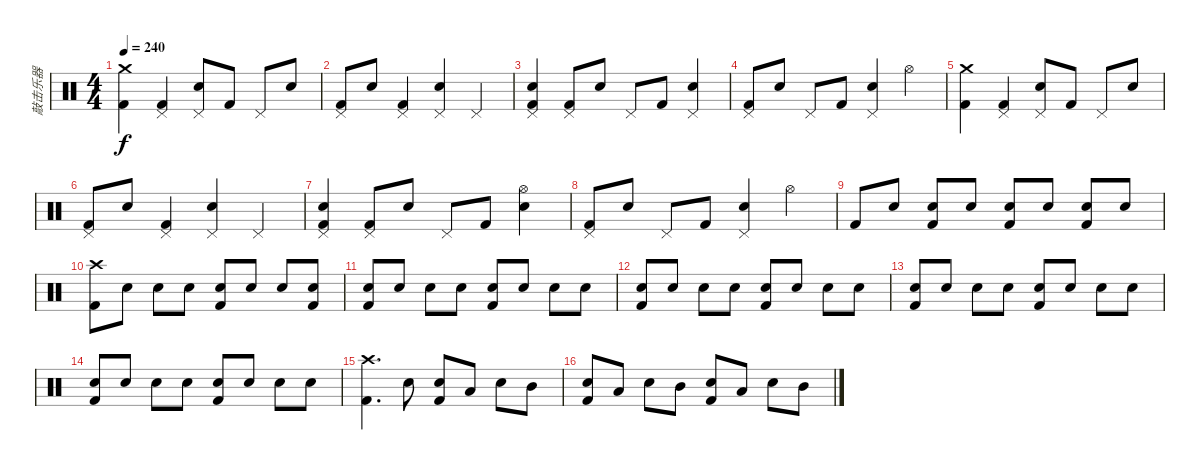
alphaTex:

\track ("敲击乐器" "敲击乐器") {instrument percussion}
\staff {score}
\articulation defaults
\ts (4 4)
\tempo 240
\clef neutral
\ks c
("Crash medium (hit)" "Kick (hit) 2").4{dy f} ("Pedal Hi-Hat (hit)" "Kick (hit) 2").4 ("Pedal Hi-Hat (hit)" "Electric Snare (hit)").8 "Kick (hit) 2".8 "Pedal Hi-Hat (hit)".8 "Electric Snare (hit)".8 |
("Pedal Hi-Hat (hit)" "Kick (hit) 2").8 "Electric Snare (hit)".8 ("Pedal Hi-Hat (hit)" "Kick (hit) 2").4 ("Pedal Hi-Hat (hit)" "Electric Snare (hit)").4 "Pedal Hi-Hat (hit)".4 |
("Pedal Hi-Hat (hit)" "Electric Snare (hit)" "Kick (hit) 2").4 ("Pedal Hi-Hat (hit)" "Kick (hit) 2").8 "Electric Snare (hit)".8 "Pedal Hi-Hat (hit)".8 "Kick (hit) 2".8 ("Pedal Hi-Hat (hit)" "Electric Snare (hit)").4 |
("Pedal Hi-Hat (hit)" "Kick (hit) 2").8 "Electric Snare (hit)".8 "Pedal Hi-Hat (hit)".8 "Kick (hit) 2".8 ("Pedal Hi-Hat (hit)" "Electric Snare (hit)").4 "Hi-Hat (open)".4 |
("Crash medium (hit)" "Kick (hit) 2").4 ("Pedal Hi-Hat (hit)" "Kick (hit) 2").4 ("Pedal Hi-Hat (hit)" "Electric Snare (hit)").8 "Kick (hit) 2".8 "Pedal Hi-Hat (hit)".8 "Electric Snare (hit)".8 |
("Pedal Hi-Hat (hit)" "Kick (hit) 2").8 "Electric Snare (hit)".8 ("Pedal Hi-Hat (hit)" "Kick (hit) 2").4 ("Pedal Hi-Hat (hit)" "Electric Snare (hit)").4 "Pedal Hi-Hat (hit)".4 |
("Pedal Hi-Hat (hit)" "Electric Snare (hit)" "Kick (hit) 2").4 ("Pedal Hi-Hat (hit)" "Kick (hit) 2").8 "Electric Snare (hit)".8 "Pedal Hi-Hat (hit)".8 "Kick (hit) 2".8 ("Hi-Hat (open)" "Electric Snare (hit)").4 |
("Pedal Hi-Hat (hit)" "Kick (hit) 2").8 "Electric Snare (hit)".8 "Pedal Hi-Hat (hit)".8 "Kick (hit) 2".8 ("Pedal Hi-Hat (hit)" "Electric Snare (hit)").4 "Hi-Hat (open)".4 |
"Kick (hit) 2".8 "Electric Snare (hit)".8 ("Electric Snare (hit)" "Kick (hit) 2").8 "Electric Snare (hit)".8 ("Electric Snare (hit)" "Kick (hit) 2").8 "Electric Snare (hit)".8 ("Electric Snare (hit)" "Kick (hit) 2").8 "Electric Snare (hit)".8 |
("Crash high (hit)" "Kick (hit) 2").8 "Electric Snare (hit)".8 "Electric Snare (hit)".8 "Electric Snare (hit)".8 ("Electric Snare (hit)" "Kick (hit) 2").8 "Electric Snare (hit)".8 "Electric Snare (hit)".8 ("Electric Snare (hit)" "Kick (hit) 2").8 |
("Electric Snare (hit)" "Kick (hit) 2").8 "Electric Snare (hit)".8 "Electric Snare (hit)".8 "Electric Snare (hit)".8 ("Electric Snare (hit)" "Kick (hit) 2").8 "Electric Snare (hit)".8 "Electric Snare (hit)".8 "Electric Snare (hit)".8 |
("Electric Snare (hit)" "Kick (hit) 2").8 "Electric Snare (hit)".8 "Electric Snare (hit)".8 "Electric Snare (hit)".8 ("Electric Snare (hit)" "Kick (hit) 2").8 "Electric Snare (hit)".8 "Electric Snare (hit)".8 "Electric Snare (hit)".8 |
("Electric Snare (hit)" "Kick (hit) 2").8 "Electric Snare (hit)".8 "Electric Snare (hit)".8 "Electric Snare (hit)".8 ("Electric Snare (hit)" "Kick (hit) 2").8 "Electric Snare (hit)".8 "Electric Snare (hit)".8 "Electric Snare (hit)".8 |
("Electric Snare (hit)" "Kick (hit) 2").8 "Electric Snare (hit)".8 "Electric Snare (hit)".8 "Electric Snare (hit)".8 ("Electric Snare (hit)" "Kick (hit) 2").8 "Electric Snare (hit)".8 "Electric Snare (hit)".8 "Electric Snare (hit)".8 |
("Crash high (hit)" "Kick (hit) 2").4{d} "Electric Snare (hit)".8 ("Snare (hit) 2" "Kick (hit) 2").8 "Low Tom (hit)".8 "Electric Snare (hit)".8 "Mid Tom (hit)".8 |
("Snare (hit) 2" "Kick (hit) 2").8 "Low Tom (hit)".8 "Electric Snare (hit)".8 "Mid Tom (hit)".8 ("Snare (hit) 2" "Kick (hit) 2").8 "Low Tom (hit)".8 "Electric Snare (hit)".8 "Mid Tom (hit)".8
